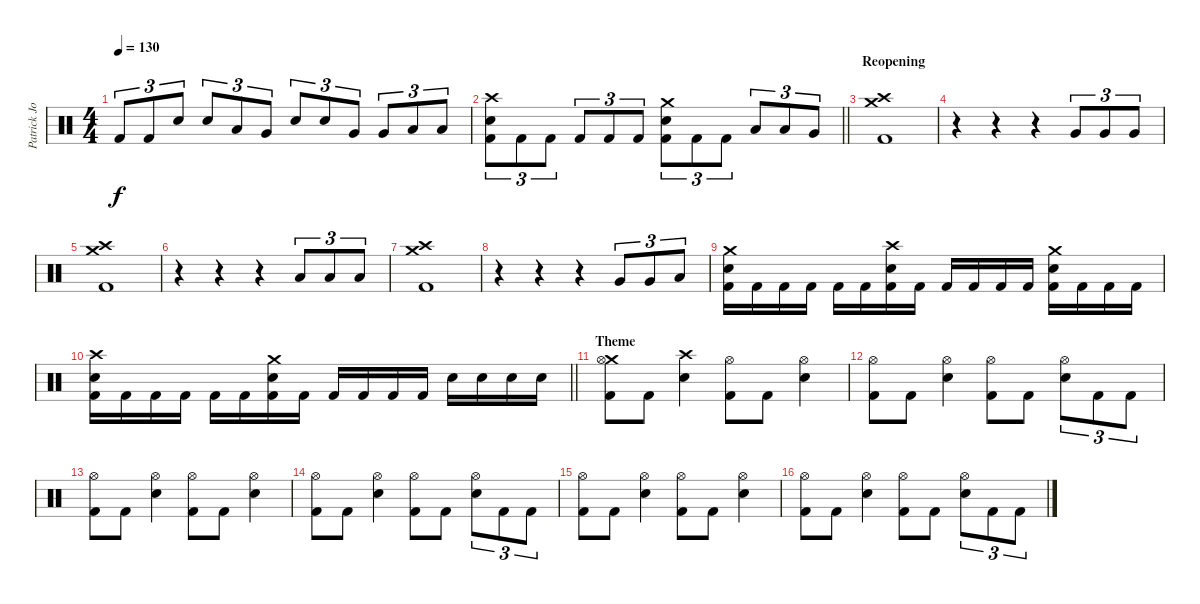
\track ("Patrick Johansson " "Patrick Jo") {instrument percussion}
\staff {score}
\articulation defaults
\ts (4 4)
\tempo 130
\clef neutral
\ks c "Kick (hit) 2".8{tu (3 2) dy f} "Kick (hit) 2".8{tu (3 2)} "Snare (hit) 2".8{tu (3 2)} "Snare (hit) 2".8{tu (3 2)} "Low Tom (hit)".8{tu (3 2)} "Very Low Tom (hit)".8{tu (3 2)} "Snare (hit) 2".8{tu (3 2)} "Snare (hit) 2".8{tu (3 2)} "Very Low Tom (hit)".8{tu (3 2)} "Very Low Tom (hit)".8{tu (3 2)} "Low Floor Tom (hit)".8{tu (3 2)} "Low Floor Tom (hit)".8{tu (3 2)}
|
\barLineRight lightlight
("Crash high (hit)" "Snare (hit) 2" "Kick (hit) 2").8{tu (3 2)} "Kick (hit) 2".8{tu (3 2)} "Kick (hit) 2".8{tu (3 2)} "Kick (hit) 2".8{tu (3 2)} "Kick (hit) 2".8{tu (3 2)} "Kick (hit) 2".8{tu (3 2)} ("Crash medium (hit)" "Snare (hit) 2" "Kick (hit) 2").8{tu (3 2)} "Kick (hit) 2".8{tu (3 2)} "Kick (hit) 2".8{tu (3 2)} "Low Tom (hit)".8{tu (3 2)} "Low Tom (hit)".8{tu (3 2)} "Very Low Tom (hit)".8{tu (3 2)} |
\section ("" "Reopening")
("Crash medium (hit)" "Crash high (hit)" "Kick (hit) 2").1 |
r.4 r.4 r.4 "Very Low Tom (hit)".8{tu (3 2)} "Very Low Tom (hit)".8{tu (3 2)} "Very Low Tom (hit)".8{tu (3 2)} |
("Crash medium (hit)" "Crash high (hit)" "Kick (hit) 2").1 |
r.4 r.4 r.4 "Low Floor Tom (hit)".8{tu (3 2)} "Low Floor Tom (hit)".8{tu (3 2)} "Low Floor Tom (hit)".8{tu (3 2)} |
("Crash medium (hit)" "Crash high (hit)" "Kick (hit) 2").1 |
r.4 r.4 r.4 "Very Low Tom (hit)".8{tu (3 2)} "Very Low Tom (hit)".8{tu (3 2)} "Low Floor Tom (hit)".8{tu (3 2)} |
("Crash medium (hit)" "Snare (hit) 2" "Kick (hit) 2").16 "Kick (hit) 2".16 "Kick (hit) 2".16 "Kick (hit) 2".16 "Kick (hit) 2".16 "Kick (hit) 2".16 ("Crash high (hit)" "Snare (hit) 2" "Kick (hit) 2").16 "Kick (hit) 2".16 "Kick (hit) 2".16 "Kick (hit) 2".16 "Kick (hit) 2".16 "Kick (hit) 2".16 ("Crash medium (hit)" "Snare (hit) 2" "Kick (hit) 2").16 "Kick (hit) 2".16 "Kick (hit) 2".16 "Kick (hit) 2".16 |
\barLineRight lightlight
("Crash high (hit)" "Snare (hit) 2" "Kick (hit) 2").16 "Kick (hit) 2".16 "Kick (hit) 2".16 "Kick (hit) 2".16 "Kick (hit) 2".16 "Kick (hit) 2".16 ("Crash medium (hit)" "Snare (hit) 2" "Kick (hit) 2").16 "Kick (hit) 2".16 "Kick (hit) 2".16 "Kick (hit) 2".16 "Kick (hit) 2".16 "Kick (hit) 2".16 "Snare (hit) 2".16 "Snare (hit) 2".16 "Snare (hit) 2".16 "Snare (hit) 2".16 |
\section ("" "Theme")
("Crash medium (hit)" "Hi-Hat (open)" "Kick (hit) 2").8 "Kick (hit) 2".8 ("Crash high (hit)" "Snare (hit) 2").4 ("Hi-Hat (open)" "Kick (hit) 2").8 "Kick (hit) 2".8 ("Hi-Hat (open)" "Snare (hit) 2").4 |
("Hi-Hat (open)" "Kick (hit) 2").8 "Kick (hit) 2".8 ("Hi-Hat (open)" "Snare (hit) 2").4 ("Hi-Hat (open)" "Kick (hit) 2").8 "Kick (hit) 2".8 ("Hi-Hat (open)" "Snare (hit) 2").8{tu (3 2)} "Kick (hit) 2".8{tu (3 2)} "Kick (hit) 2".8{tu (3 2)} |
("Hi-Hat (open)" "Kick (hit) 2").8 "Kick (hit) 2".8 ("Hi-Hat (open)" "Snare (hit) 2").4 ("Hi-Hat (open)" "Kick (hit) 2").8 "Kick (hit) 2".8 ("Hi-Hat (open)" "Snare (hit) 2").4 |
("Hi-Hat (open)" "Kick (hit) 2").8 "Kick (hit) 2".8 ("Hi-Hat (open)" "Snare (hit) 2").4 ("Hi-Hat (open)" "Kick (hit) 2").8 "Kick (hit) 2".8 ("Hi-Hat (open)" "Snare (hit) 2").8{tu (3 2)} "Kick (hit) 2".8{tu (3 2)} "Kick (hit) 2".8{tu (3 2)} |
("Hi-Hat (open)" "Kick (hit) 2").8 "Kick (hit) 2".8 ("Hi-Hat (open)" "Snare (hit) 2").4 ("Hi-Hat (open)" "Kick (hit) 2").8 "Kick (hit) 2".8 ("Hi-Hat (open)" "Snare (hit) 2").4 |
("Hi-Hat (open)" "Kick (hit) 2").8 "Kick (hit) 2".8 ("Hi-Hat (open)" "Snare (hit) 2").4 ("Hi-Hat (open)" "Kick (hit) 2").8 "Kick (hit) 2".8 ("Hi-Hat (open)" "Snare (hit) 2").8{tu (3 2)} "Kick (hit) 2".8{tu (3 2)} "Kick (hit) 2".8{tu (3 2)}
